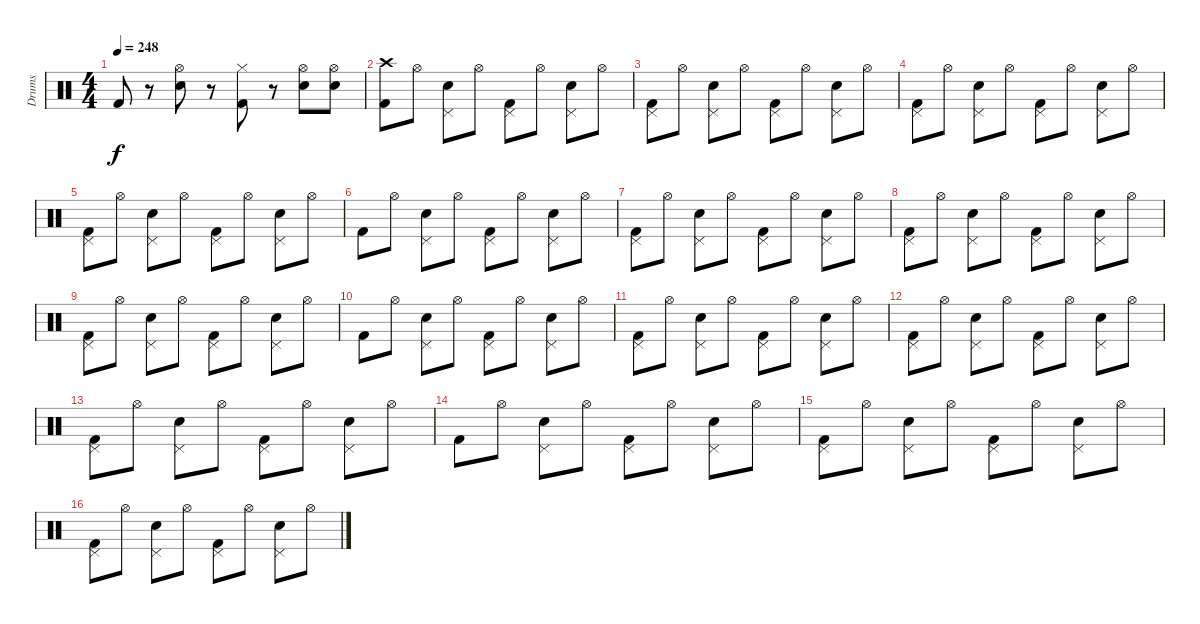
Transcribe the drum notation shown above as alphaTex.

\track ("Drums" "Drums") {instrument percussion}
\staff {score}
\articulation defaults
\ts (4 4)
\tempo 248
\clef neutral
\ks c "Kick (hit) 2".8{dy f}
r.8 ("Hi-Hat (open)" "Electric Snare (hit)").8 r.8 ("Hi-Hat (closed)" "Kick (hit) 2").8 r.8 ("Hi-Hat (open)" "Electric Snare (hit)").8 ("Hi-Hat (open)" "Electric Snare (hit)").8 |
("Crash high (hit)" "Kick (hit) 2").8{volume 10} "Hi-Hat (open)".8 ("Pedal Hi-Hat (hit)" "Electric Snare (hit)").8 "Hi-Hat (open)".8 ("Pedal Hi-Hat (hit)" "Kick (hit) 2").8 "Hi-Hat (open)".8 ("Pedal Hi-Hat (hit)" "Electric Snare (hit)").8 "Hi-Hat (open)".8 |
("Pedal Hi-Hat (hit)" "Kick (hit) 2").8 "Hi-Hat (open)".8 ("Pedal Hi-Hat (hit)" "Electric Snare (hit)").8 "Hi-Hat (open)".8 ("Pedal Hi-Hat (hit)" "Kick (hit) 2").8 "Hi-Hat (open)".8 ("Pedal Hi-Hat (hit)" "Electric Snare (hit)").8 "Hi-Hat (open)".8 |
("Pedal Hi-Hat (hit)" "Kick (hit) 2").8 "Hi-Hat (open)".8 ("Pedal Hi-Hat (hit)" "Electric Snare (hit)").8 "Hi-Hat (open)".8 ("Pedal Hi-Hat (hit)" "Kick (hit) 2").8 "Hi-Hat (open)".8 ("Pedal Hi-Hat (hit)" "Electric Snare (hit)").8 "Hi-Hat (open)".8 |
("Pedal Hi-Hat (hit)" "Kick (hit) 2").8 "Hi-Hat (open)".8 ("Pedal Hi-Hat (hit)" "Electric Snare (hit)").8 "Hi-Hat (open)".8 ("Pedal Hi-Hat (hit)" "Kick (hit) 2").8 "Hi-Hat (open)".8 ("Pedal Hi-Hat (hit)" "Electric Snare (hit)").8 "Hi-Hat (open)".8 |
"Kick (hit) 2".8 "Hi-Hat (open)".8 ("Pedal Hi-Hat (hit)" "Electric Snare (hit)").8 "Hi-Hat (open)".8 ("Pedal Hi-Hat (hit)" "Kick (hit) 2").8 "Hi-Hat (open)".8 ("Pedal Hi-Hat (hit)" "Electric Snare (hit)").8 "Hi-Hat (open)".8 |
("Pedal Hi-Hat (hit)" "Kick (hit) 2").8 "Hi-Hat (open)".8 ("Pedal Hi-Hat (hit)" "Electric Snare (hit)").8 "Hi-Hat (open)".8 ("Pedal Hi-Hat (hit)" "Kick (hit) 2").8 "Hi-Hat (open)".8 ("Pedal Hi-Hat (hit)" "Electric Snare (hit)").8 "Hi-Hat (open)".8 |
("Pedal Hi-Hat (hit)" "Kick (hit) 2").8 "Hi-Hat (open)".8 ("Pedal Hi-Hat (hit)" "Electric Snare (hit)").8 "Hi-Hat (open)".8 ("Pedal Hi-Hat (hit)" "Kick (hit) 2").8 "Hi-Hat (open)".8 ("Pedal Hi-Hat (hit)" "Electric Snare (hit)").8 "Hi-Hat (open)".8 |
("Pedal Hi-Hat (hit)" "Kick (hit) 2").8 "Hi-Hat (open)".8 ("Pedal Hi-Hat (hit)" "Electric Snare (hit)").8 "Hi-Hat (open)".8 ("Pedal Hi-Hat (hit)" "Kick (hit) 2").8 "Hi-Hat (open)".8 ("Pedal Hi-Hat (hit)" "Electric Snare (hit)").8 "Hi-Hat (open)".8 |
"Kick (hit) 2".8 "Hi-Hat (open)".8 ("Pedal Hi-Hat (hit)" "Electric Snare (hit)").8 "Hi-Hat (open)".8 ("Pedal Hi-Hat (hit)" "Kick (hit) 2").8 "Hi-Hat (open)".8 ("Pedal Hi-Hat (hit)" "Electric Snare (hit)").8 "Hi-Hat (open)".8 |
("Pedal Hi-Hat (hit)" "Kick (hit) 2").8 "Hi-Hat (open)".8 ("Pedal Hi-Hat (hit)" "Electric Snare (hit)").8 "Hi-Hat (open)".8 ("Pedal Hi-Hat (hit)" "Kick (hit) 2").8 "Hi-Hat (open)".8 ("Pedal Hi-Hat (hit)" "Electric Snare (hit)").8 "Hi-Hat (open)".8 |
("Pedal Hi-Hat (hit)" "Kick (hit) 2").8 "Hi-Hat (open)".8 ("Pedal Hi-Hat (hit)" "Electric Snare (hit)").8 "Hi-Hat (open)".8 ("Pedal Hi-Hat (hit)" "Kick (hit) 2").8 "Hi-Hat (open)".8 ("Pedal Hi-Hat (hit)" "Electric Snare (hit)").8 "Hi-Hat (open)".8 |
("Pedal Hi-Hat (hit)" "Kick (hit) 2").8 "Hi-Hat (open)".8 ("Pedal Hi-Hat (hit)" "Electric Snare (hit)").8 "Hi-Hat (open)".8 ("Pedal Hi-Hat (hit)" "Kick (hit) 2").8 "Hi-Hat (open)".8 ("Pedal Hi-Hat (hit)" "Electric Snare (hit)").8 "Hi-Hat (open)".8 |
"Kick (hit) 2".8 "Hi-Hat (open)".8 ("Pedal Hi-Hat (hit)" "Electric Snare (hit)").8 "Hi-Hat (open)".8 ("Pedal Hi-Hat (hit)" "Kick (hit) 2").8 "Hi-Hat (open)".8 ("Pedal Hi-Hat (hit)" "Electric Snare (hit)").8 "Hi-Hat (open)".8 |
("Pedal Hi-Hat (hit)" "Kick (hit) 2").8 "Hi-Hat (open)".8 ("Pedal Hi-Hat (hit)" "Electric Snare (hit)").8 "Hi-Hat (open)".8 ("Pedal Hi-Hat (hit)" "Kick (hit) 2").8 "Hi-Hat (open)".8 ("Pedal Hi-Hat (hit)" "Electric Snare (hit)").8 "Hi-Hat (open)".8 |
("Pedal Hi-Hat (hit)" "Kick (hit) 2").8 "Hi-Hat (open)".8 ("Pedal Hi-Hat (hit)" "Electric Snare (hit)").8 "Hi-Hat (open)".8 ("Pedal Hi-Hat (hit)" "Kick (hit) 2").8 "Hi-Hat (open)".8 ("Pedal Hi-Hat (hit)" "Electric Snare (hit)").8 "Hi-Hat (open)".8
